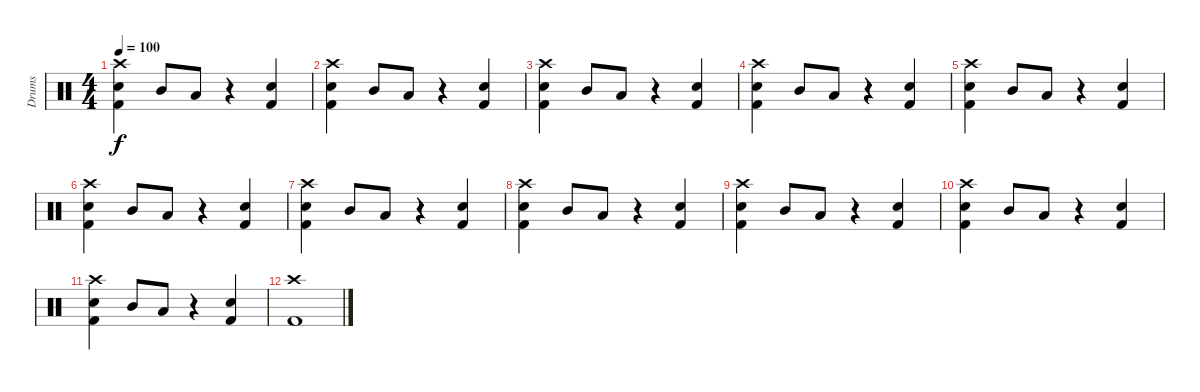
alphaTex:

\track ("Drums" "Drums") {instrument percussion}
\staff {score}
\articulation defaults
\ts (4 4)
\tempo 100
\clef neutral
\ks c
("Crash high (hit)" "Snare (hit) 2" "Kick (hit) 2").4{dy f} "Mid Tom (hit)".8 "Low Tom (hit)".8 r.4 ("Snare (hit) 2" "Kick (hit) 2").4 |
("Crash high (hit)" "Snare (hit) 2" "Kick (hit) 2").4 "Mid Tom (hit)".8 "Low Tom (hit)".8 r.4 ("Snare (hit) 2" "Kick (hit) 2").4 |
("Crash high (hit)" "Snare (hit) 2" "Kick (hit) 2").4 "Mid Tom (hit)".8 "Low Tom (hit)".8 r.4 ("Snare (hit) 2" "Kick (hit) 2").4 |
("Crash high (hit)" "Snare (hit) 2" "Kick (hit) 2").4 "Mid Tom (hit)".8 "Low Tom (hit)".8 r.4 ("Snare (hit) 2" "Kick (hit) 2").4 |
("Crash high (hit)" "Snare (hit) 2" "Kick (hit) 2").4 "Mid Tom (hit)".8 "Low Tom (hit)".8 r.4 ("Snare (hit) 2" "Kick (hit) 2").4 |
("Crash high (hit)" "Snare (hit) 2" "Kick (hit) 2").4 "Mid Tom (hit)".8 "Low Tom (hit)".8 r.4 ("Snare (hit) 2" "Kick (hit) 2").4 |
("Crash high (hit)" "Snare (hit) 2" "Kick (hit) 2").4 "Mid Tom (hit)".8 "Low Tom (hit)".8 r.4 ("Snare (hit) 2" "Kick (hit) 2").4 |
("Crash high (hit)" "Snare (hit) 2" "Kick (hit) 2").4 "Mid Tom (hit)".8 "Low Tom (hit)".8 r.4 ("Snare (hit) 2" "Kick (hit) 2").4 |
("Crash high (hit)" "Snare (hit) 2" "Kick (hit) 2").4 "Mid Tom (hit)".8 "Low Tom (hit)".8 r.4 ("Snare (hit) 2" "Kick (hit) 2").4 |
("Crash high (hit)" "Snare (hit) 2" "Kick (hit) 2").4 "Mid Tom (hit)".8 "Low Tom (hit)".8 r.4 ("Snare (hit) 2" "Kick (hit) 2").4 |
("Crash high (hit)" "Snare (hit) 2" "Kick (hit) 2").4 "Mid Tom (hit)".8 "Low Tom (hit)".8 r.4 ("Snare (hit) 2" "Kick (hit) 2").4 |
("Crash high (hit)" "Kick (hit) 2").1
